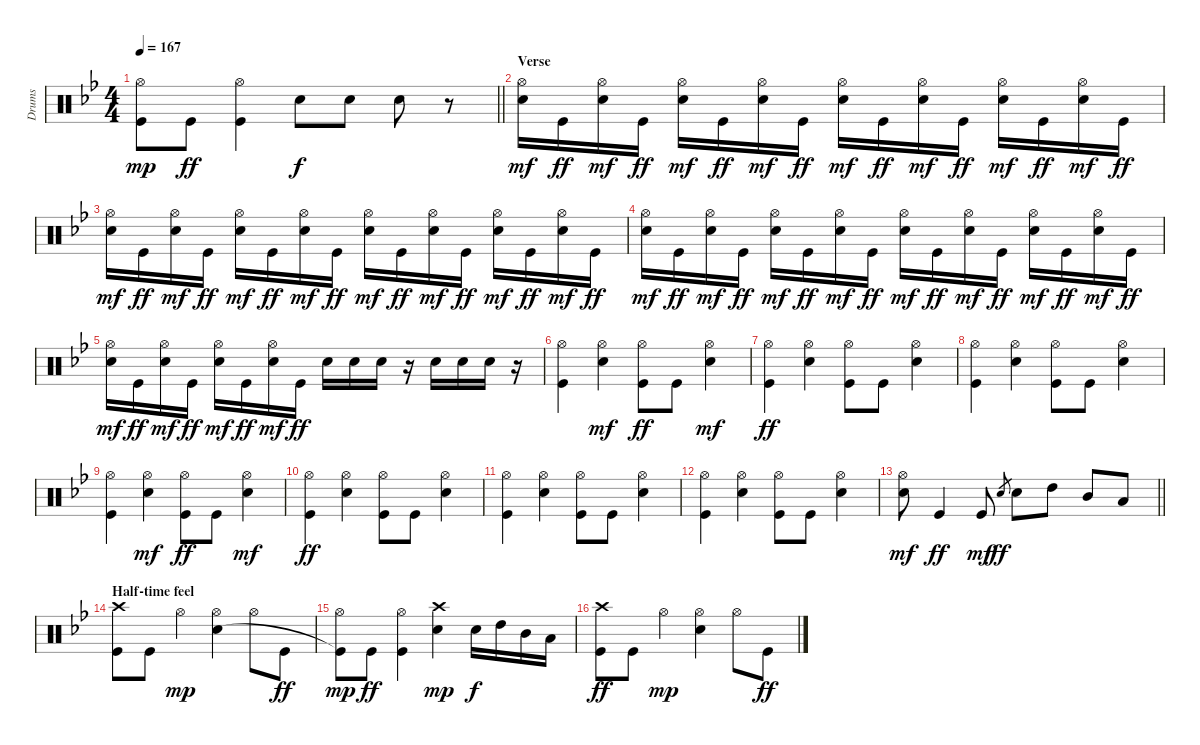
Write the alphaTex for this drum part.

\track ("Drums" "Drums") {instrument percussion}
\staff {score}
\articulation defaults
\ts (4 4)
\tempo 167
\clef neutral
\barLineRight lightlight
\ks bb
("Hi-Hat (open)" "Kick (hit)"{t}).8{dy mp} "Kick (hit)".8{dy ff} ("Hi-Hat (open)" "Kick (hit)").4 "Electric Snare (hit)".8{dy f} "Electric Snare (hit)".8 "Electric Snare (hit)".8 r.8 |
\section ("" "Verse")
("Hi-Hat (open)" "Electric Snare (hit)").16{dy mf} "Kick (hit)".16{dy ff} ("Hi-Hat (open)" "Electric Snare (hit)").16{dy mf} "Kick (hit)".16{dy ff} ("Hi-Hat (open)" "Electric Snare (hit)").16{dy mf} "Kick (hit)".16{dy ff} ("Hi-Hat (open)" "Electric Snare (hit)").16{dy mf} "Kick (hit)".16{dy ff} ("Hi-Hat (open)" "Electric Snare (hit)").16{dy mf} "Kick (hit)".16{dy ff} ("Hi-Hat (open)" "Electric Snare (hit)").16{dy mf} "Kick (hit)".16{dy ff} ("Hi-Hat (open)" "Electric Snare (hit)").16{dy mf} "Kick (hit)".16{dy ff} ("Hi-Hat (open)" "Electric Snare (hit)").16{dy mf} "Kick (hit)".16{dy ff} |
("Hi-Hat (open)" "Electric Snare (hit)").16{dy mf} "Kick (hit)".16{dy ff} ("Hi-Hat (open)" "Electric Snare (hit)").16{dy mf} "Kick (hit)".16{dy ff} ("Hi-Hat (open)" "Electric Snare (hit)").16{dy mf} "Kick (hit)".16{dy ff} ("Hi-Hat (open)" "Electric Snare (hit)").16{dy mf} "Kick (hit)".16{dy ff} ("Hi-Hat (open)" "Electric Snare (hit)").16{dy mf} "Kick (hit)".16{dy ff} ("Hi-Hat (open)" "Electric Snare (hit)").16{dy mf} "Kick (hit)".16{dy ff} ("Hi-Hat (open)" "Electric Snare (hit)").16{dy mf} "Kick (hit)".16{dy ff} ("Hi-Hat (open)" "Electric Snare (hit)").16{dy mf} "Kick (hit)".16{dy ff} |
("Hi-Hat (open)" "Electric Snare (hit)").16{dy mf} "Kick (hit)".16{dy ff} ("Hi-Hat (open)" "Electric Snare (hit)").16{dy mf} "Kick (hit)".16{dy ff} ("Hi-Hat (open)" "Electric Snare (hit)").16{dy mf} "Kick (hit)".16{dy ff} ("Hi-Hat (open)" "Electric Snare (hit)").16{dy mf} "Kick (hit)".16{dy ff} ("Hi-Hat (open)" "Electric Snare (hit)").16{dy mf} "Kick (hit)".16{dy ff} ("Hi-Hat (open)" "Electric Snare (hit)").16{dy mf} "Kick (hit)".16{dy ff} ("Hi-Hat (open)" "Electric Snare (hit)").16{dy mf} "Kick (hit)".16{dy ff} ("Hi-Hat (open)" "Electric Snare (hit)").16{dy mf} "Kick (hit)".16{dy ff} |
("Hi-Hat (open)" "Electric Snare (hit)").16{dy mf} "Kick (hit)".16{dy ff} ("Hi-Hat (open)" "Electric Snare (hit)").16{dy mf} "Kick (hit)".16{dy ff} ("Hi-Hat (open)" "Electric Snare (hit)").16{dy mf} "Kick (hit)".16{dy ff} ("Hi-Hat (open)" "Electric Snare (hit)").16{dy mf} "Kick (hit)".16{dy ff} "Electric Snare (hit)".16 "Electric Snare (hit)".16 "Electric Snare (hit)".16 r.16 "Electric Snare (hit)".16 "Electric Snare (hit)".16 "Electric Snare (hit)".16 r.16 |
("Hi-Hat (open)" "Kick (hit)").4 ("Hi-Hat (open)" "Electric Snare (hit)").4{dy mf} ("Hi-Hat (open)" "Kick (hit)").8{dy ff} "Kick (hit)".8 ("Hi-Hat (open)" "Electric Snare (hit)").4{dy mf} |
("Hi-Hat (open)" "Kick (hit)").4{dy ff} ("Hi-Hat (open)" "Electric Snare (hit)").4 ("Hi-Hat (open)" "Kick (hit)").8 "Kick (hit)".8 ("Hi-Hat (open)" "Electric Snare (hit)").4 |
("Hi-Hat (open)" "Kick (hit)").4 ("Hi-Hat (open)" "Electric Snare (hit)").4 ("Hi-Hat (open)" "Kick (hit)").8 "Kick (hit)".8 ("Hi-Hat (open)" "Electric Snare (hit)").4 |
("Hi-Hat (open)" "Kick (hit)").4 ("Hi-Hat (open)" "Electric Snare (hit)").4{dy mf} ("Hi-Hat (open)" "Kick (hit)").8{dy ff} "Kick (hit)".8 ("Hi-Hat (open)" "Electric Snare (hit)").4{dy mf} |
("Hi-Hat (open)" "Kick (hit)").4{dy ff} ("Hi-Hat (open)" "Electric Snare (hit)").4 ("Hi-Hat (open)" "Kick (hit)").8 "Kick (hit)".8 ("Hi-Hat (open)" "Electric Snare (hit)").4 |
("Hi-Hat (open)" "Kick (hit)").4 ("Hi-Hat (open)" "Electric Snare (hit)").4 ("Hi-Hat (open)" "Kick (hit)").8 "Kick (hit)".8 ("Hi-Hat (open)" "Electric Snare (hit)").4 |
("Hi-Hat (open)" "Kick (hit)").4 ("Hi-Hat (open)" "Electric Snare (hit)").4 ("Hi-Hat (open)" "Kick (hit)").8 "Kick (hit)".8 ("Hi-Hat (open)" "Electric Snare (hit)").4 |
\barLineRight lightlight
("Hi-Hat (open)" "Electric Snare (hit)").8{dy mf} "Kick (hit)".4{dy ff} "Kick (hit)".8{dy mf} "Electric Snare (hit)".8{gr dy ff} "Electric Snare (hit)".8 "High Tom (hit)".8 "Mid Tom (hit)".8 "Low Tom (hit)".8 |
\section ("" "Half-time feel")
("Crash high (hit)" "Kick (hit)").8 "Kick (hit)".8 "Hi-Hat (open)".4{dy mp} ("Hi-Hat (open)" "Electric Snare (hit)").4 "Hi-Hat (open)".8 "Kick (hit)".8{dy ff} |
("Hi-Hat (open)" "Kick (hit)"{t}).8{dy mp} "Kick (hit)".8{dy ff} ("Hi-Hat (open)" "Kick (hit)").4 ("Crash high (hit)" "Electric Snare (hit)").4{dy mp} "Electric Snare (hit)".16{dy f} "High Tom (hit)".16 "Mid Tom (hit)".16 "Low Tom (hit)".16 |
("Crash high (hit)" "Kick (hit)").8{dy ff} "Kick (hit)".8 "Hi-Hat (open)".4{dy mp} ("Hi-Hat (open)" "Electric Snare (hit)").4 "Hi-Hat (open)".8 "Kick (hit)".8{dy ff}
